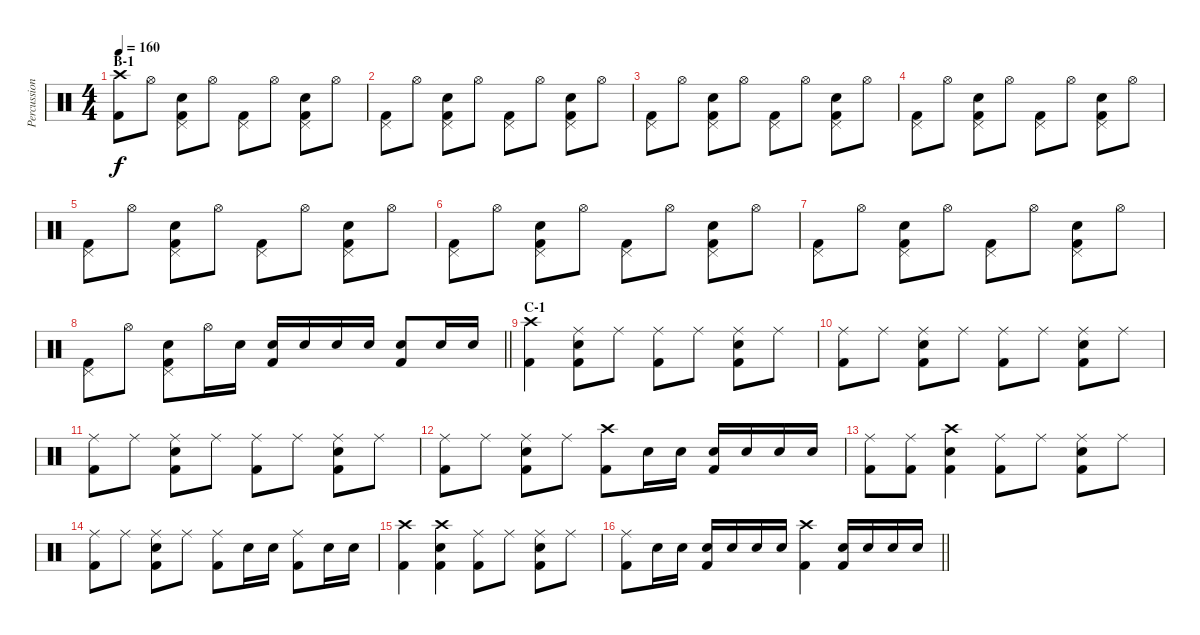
\track ("Percussion" "Percussion") {instrument percussion}
\staff {score}
\articulation defaults
\ts (4 4)
\section ("" "B-1")
\tempo 160
\clef neutral
\ks c
("Crash high (hit)" "Kick (hit) 2").8{dy f} "Hi-Hat (open)".8 ("Pedal Hi-Hat (hit)" "Electric Snare (hit)" "Kick (hit) 2").8 "Hi-Hat (open)".8 ("Pedal Hi-Hat (hit)" "Kick (hit) 2").8 "Hi-Hat (open)".8 ("Pedal Hi-Hat (hit)" "Electric Snare (hit)" "Kick (hit) 2").8 "Hi-Hat (open)".8 |
("Pedal Hi-Hat (hit)" "Kick (hit) 2").8 "Hi-Hat (open)".8 ("Pedal Hi-Hat (hit)" "Electric Snare (hit)" "Kick (hit) 2").8 "Hi-Hat (open)".8 ("Pedal Hi-Hat (hit)" "Kick (hit) 2").8 "Hi-Hat (open)".8 ("Pedal Hi-Hat (hit)" "Electric Snare (hit)" "Kick (hit) 2").8 "Hi-Hat (open)".8 |
("Pedal Hi-Hat (hit)" "Kick (hit) 2").8 "Hi-Hat (open)".8 ("Pedal Hi-Hat (hit)" "Electric Snare (hit)" "Kick (hit) 2").8 "Hi-Hat (open)".8 ("Pedal Hi-Hat (hit)" "Kick (hit) 2").8 "Hi-Hat (open)".8 ("Pedal Hi-Hat (hit)" "Electric Snare (hit)" "Kick (hit) 2").8 "Hi-Hat (open)".8 |
("Pedal Hi-Hat (hit)" "Kick (hit) 2").8 "Hi-Hat (open)".8 ("Pedal Hi-Hat (hit)" "Electric Snare (hit)" "Kick (hit) 2").8 "Hi-Hat (open)".8 ("Pedal Hi-Hat (hit)" "Kick (hit) 2").8 "Hi-Hat (open)".8 ("Pedal Hi-Hat (hit)" "Electric Snare (hit)" "Kick (hit) 2").8 "Hi-Hat (open)".8 |
("Pedal Hi-Hat (hit)" "Kick (hit) 2").8 "Hi-Hat (open)".8 ("Pedal Hi-Hat (hit)" "Electric Snare (hit)" "Kick (hit) 2").8 "Hi-Hat (open)".8 ("Pedal Hi-Hat (hit)" "Kick (hit) 2").8 "Hi-Hat (open)".8 ("Pedal Hi-Hat (hit)" "Electric Snare (hit)" "Kick (hit) 2").8 "Hi-Hat (open)".8 |
("Pedal Hi-Hat (hit)" "Kick (hit) 2").8 "Hi-Hat (open)".8 ("Pedal Hi-Hat (hit)" "Electric Snare (hit)" "Kick (hit) 2").8 "Hi-Hat (open)".8 ("Pedal Hi-Hat (hit)" "Kick (hit) 2").8 "Hi-Hat (open)".8 ("Pedal Hi-Hat (hit)" "Electric Snare (hit)" "Kick (hit) 2").8 "Hi-Hat (open)".8 |
("Pedal Hi-Hat (hit)" "Kick (hit) 2").8 "Hi-Hat (open)".8 ("Pedal Hi-Hat (hit)" "Electric Snare (hit)" "Kick (hit) 2").8 "Hi-Hat (open)".8 ("Pedal Hi-Hat (hit)" "Kick (hit) 2").8 "Hi-Hat (open)".8 ("Pedal Hi-Hat (hit)" "Electric Snare (hit)" "Kick (hit) 2").8 "Hi-Hat (open)".8 |
\barLineRight lightlight
("Pedal Hi-Hat (hit)" "Kick (hit) 2").8 "Hi-Hat (open)".8 ("Pedal Hi-Hat (hit)" "Electric Snare (hit)" "Kick (hit) 2").8 "Hi-Hat (open)".16 "Electric Snare (hit)".16 ("Electric Snare (hit)" "Kick (hit) 2").16 "Electric Snare (hit)".16 "Electric Snare (hit)".16 "Electric Snare (hit)".16 ("Electric Snare (hit)" "Kick (hit) 2").8 "Electric Snare (hit)".16 "Electric Snare (hit)".16 |
\section ("" "C-1")
("Crash high (hit)" "Kick (hit) 2").4 ("Ride (middle)" "Electric Snare (hit)" "Kick (hit) 2").8 "Ride (middle)".8 ("Ride (middle)" "Kick (hit) 2").8 "Ride (middle)".8 ("Ride (middle)" "Electric Snare (hit)" "Kick (hit) 2").8 "Ride (middle)".8 |
("Ride (middle)" "Kick (hit) 2").8 "Ride (middle)".8 ("Ride (middle)" "Electric Snare (hit)" "Kick (hit) 2").8 "Ride (middle)".8 ("Ride (middle)" "Kick (hit) 2").8 "Ride (middle)".8 ("Ride (middle)" "Electric Snare (hit)" "Kick (hit) 2").8 "Ride (middle)".8 |
("Ride (middle)" "Kick (hit) 2").8 "Ride (middle)".8 ("Ride (middle)" "Electric Snare (hit)" "Kick (hit) 2").8 "Ride (middle)".8 ("Ride (middle)" "Kick (hit) 2").8 "Ride (middle)".8 ("Ride (middle)" "Electric Snare (hit)" "Kick (hit) 2").8 "Ride (middle)".8 |
("Ride (middle)" "Kick (hit) 2").8 "Ride (middle)".8 ("Ride (middle)" "Electric Snare (hit)" "Kick (hit) 2").8 "Ride (middle)".8 ("Crash high (hit)" "Kick (hit) 2").8 "Electric Snare (hit)".16 "Electric Snare (hit)".16 ("Electric Snare (hit)" "Kick (hit) 2").16 "Electric Snare (hit)".16 "Electric Snare (hit)".16 "Electric Snare (hit)".16 |
("Ride (middle)" "Kick (hit) 2").8 ("Ride (middle)" "Kick (hit) 2").8 ("Crash high (hit)" "Electric Snare (hit)" "Kick (hit) 2").4 ("Ride (middle)" "Kick (hit) 2").8 "Ride (middle)".8 ("Ride (middle)" "Electric Snare (hit)" "Kick (hit) 2").8 "Ride (middle)".8 |
("Ride (middle)" "Kick (hit) 2").8 "Ride (middle)".8 ("Ride (middle)" "Electric Snare (hit)" "Kick (hit) 2").8 "Ride (middle)".8 ("Ride (middle)" "Kick (hit) 2").8 "Electric Snare (hit)".16 "Electric Snare (hit)".16 ("Ride (middle)" "Kick (hit) 2").8 "Electric Snare (hit)".16 "Electric Snare (hit)".16 |
("Crash high (hit)" "Kick (hit) 2").4 ("Crash high (hit)" "Electric Snare (hit)" "Kick (hit) 2").4 ("Ride (middle)" "Kick (hit) 2").8 "Ride (middle)".8 ("Ride (middle)" "Electric Snare (hit)" "Kick (hit) 2").8 "Ride (middle)".8 |
\barLineRight lightlight
("Ride (middle)" "Kick (hit) 2").8 "Electric Snare (hit)".16 "Electric Snare (hit)".16 ("Electric Snare (hit)" "Kick (hit) 2").16 "Electric Snare (hit)".16 "Electric Snare (hit)".16 "Electric Snare (hit)".16 ("Crash high (hit)" "Kick (hit) 2").4 ("Electric Snare (hit)" "Kick (hit) 2").16 "Electric Snare (hit)".16 "Electric Snare (hit)".16 "Electric Snare (hit)".16
